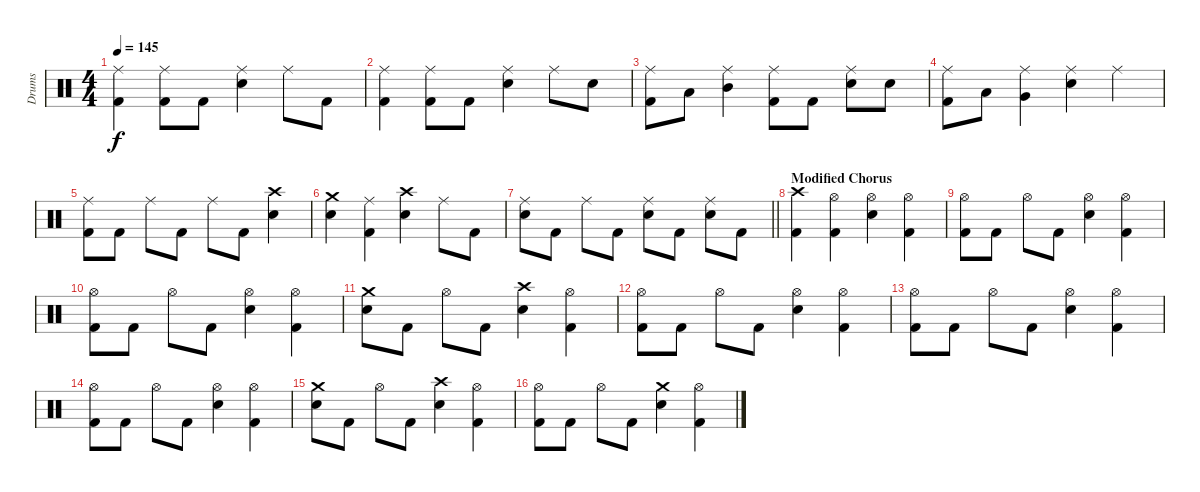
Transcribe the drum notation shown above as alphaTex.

\track ("Drums" "Drums") {instrument percussion}
\staff {score}
\articulation defaults
\ts (4 4)
\tempo 145
\clef neutral
\ks c
("Ride (middle)" "Kick (hit) 2").4{dy f} ("Ride (middle)" "Kick (hit) 2").8 "Kick (hit) 2".8 ("Ride (middle)" "Snare (hit) 2").4 "Ride (middle)".8 "Kick (hit) 2".8 |
("Ride (middle)" "Kick (hit) 2").4 ("Ride (middle)" "Kick (hit) 2").8 "Kick (hit) 2".8 ("Ride (middle)" "Snare (hit) 2").4 "Ride (middle)".8 "Snare (hit) 2".8 |
("Ride (middle)" "Kick (hit) 2").8 "Low Tom (hit)".8 ("Ride (middle)" "Mid Tom (hit)").4 ("Ride (middle)" "Kick (hit) 2").8 "Kick (hit) 2".8 ("Ride (middle)" "Snare (hit) 2").8 "Snare (hit) 2".8 |
("Ride (middle)" "Kick (hit) 2").8 "Low Floor Tom (hit)".8 ("Ride (middle)" "Very Low Tom (hit)").4 ("Ride (middle)" "Snare (hit) 2").4 "Ride (middle)".4 |
("Ride (middle)" "Kick (hit) 2").8 "Kick (hit) 2".8 "Ride (middle)".8 "Kick (hit) 2".8 "Ride (middle)".8 "Kick (hit) 2".8 ("Crash high (hit)" "Snare (hit) 2").4 |
("Crash medium (hit)" "Snare (hit) 2").4 ("Ride (middle)" "Kick (hit) 2").4 ("Crash high (hit)" "Snare (hit) 2").4 "Ride (middle)".8 "Kick (hit) 2".8 |
\barLineRight lightlight
("Ride (middle)" "Snare (hit) 2").8 "Kick (hit) 2".8 "Ride (middle)".8 "Kick (hit) 2".8 ("Ride (middle)" "Snare (hit) 2").8 "Kick (hit) 2".8 ("Ride (middle)" "Snare (hit) 2").8 "Kick (hit) 2".8 |
\section ("" "Modified Chorus")
("Crash high (hit)" "Kick (hit) 2").4 ("Hi-Hat (open)" "Kick (hit) 2").4 ("Hi-Hat (open)" "Snare (hit) 2").4 ("Hi-Hat (open)" "Kick (hit) 2").4 |
("Hi-Hat (open)" "Kick (hit) 2").8 "Kick (hit) 2".8 "Hi-Hat (open)".8 "Kick (hit) 2".8 ("Hi-Hat (open)" "Snare (hit) 2").4 ("Hi-Hat (open)" "Kick (hit) 2").4 |
("Hi-Hat (open)" "Kick (hit) 2").8 "Kick (hit) 2".8 "Hi-Hat (open)".8 "Kick (hit) 2".8 ("Hi-Hat (open)" "Snare (hit) 2").4 ("Hi-Hat (open)" "Kick (hit) 2").4 |
("Crash medium (hit)" "Snare (hit) 2").8 "Kick (hit) 2".8 "Hi-Hat (open)".8 "Kick (hit) 2".8 ("Crash high (hit)" "Snare (hit) 2").4 ("Hi-Hat (open)" "Kick (hit) 2").4 |
("Hi-Hat (open)" "Kick (hit) 2").8 "Kick (hit) 2".8 "Hi-Hat (open)".8 "Kick (hit) 2".8 ("Hi-Hat (open)" "Snare (hit) 2").4 ("Hi-Hat (open)" "Kick (hit) 2").4 |
("Hi-Hat (open)" "Kick (hit) 2").8 "Kick (hit) 2".8 "Hi-Hat (open)".8 "Kick (hit) 2".8 ("Hi-Hat (open)" "Snare (hit) 2").4 ("Hi-Hat (open)" "Kick (hit) 2").4 |
("Hi-Hat (open)" "Kick (hit) 2").8 "Kick (hit) 2".8 "Hi-Hat (open)".8 "Kick (hit) 2".8 ("Hi-Hat (open)" "Snare (hit) 2").4 ("Hi-Hat (open)" "Kick (hit) 2").4 |
("Crash medium (hit)" "Snare (hit) 2").8 "Kick (hit) 2".8 "Hi-Hat (open)".8 "Kick (hit) 2".8 ("Crash high (hit)" "Snare (hit) 2").4 ("Hi-Hat (open)" "Kick (hit) 2").4 |
("Hi-Hat (open)" "Kick (hit) 2").8 "Kick (hit) 2".8 "Hi-Hat (open)".8 "Kick (hit) 2".8 ("Crash medium (hit)" "Snare (hit) 2").4 ("Hi-Hat (open)" "Kick (hit) 2").4
